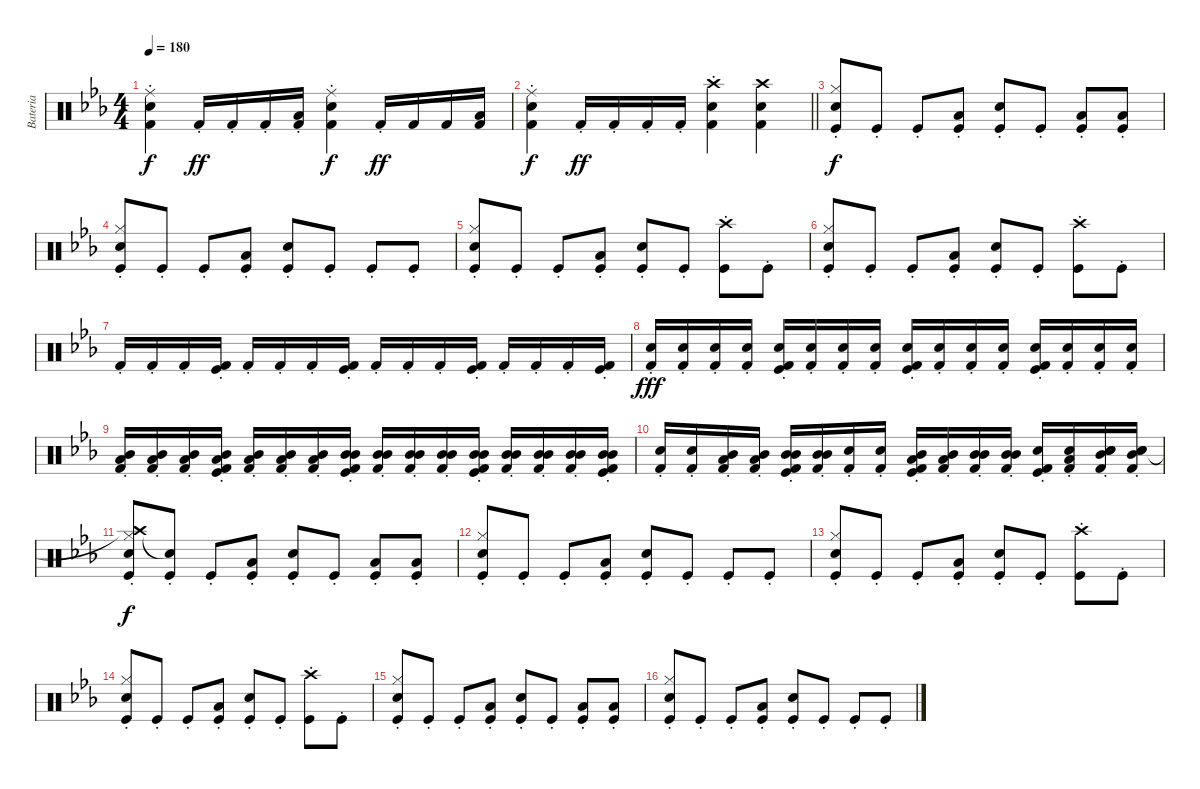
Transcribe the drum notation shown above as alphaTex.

\track ("Bateria" "Bateria") {instrument percussion}
\staff {score}
\articulation defaults
\ts (4 4)
\tempo 180
\clef neutral
\ks eb
("Ride (middle)"{st} "Snare (hit) 2"{st} "Kick (hit) 2"{st}).4{dy f} "Kick (hit) 2"{st}.16{dy ff} "Kick (hit) 2"{st}.16 "Kick (hit) 2"{st}.16 ("Low Tom (hit)" "Kick (hit) 2"{st}).16 ("Ride (middle)"{st} "Snare (hit) 2"{st} "Kick (hit) 2"{st}).4{dy f} "Kick (hit) 2"{st}.16{dy ff} "Kick (hit) 2".16 "Kick (hit) 2".16 ("Low Tom (hit)" "Kick (hit) 2").16 |
\barLineRight lightlight
("Ride (middle)"{st} "Snare (hit) 2"{st} "Kick (hit) 2"{st}).4{dy f} "Kick (hit) 2"{st}.16{dy ff} "Kick (hit) 2"{st}.16 "Kick (hit) 2"{st}.16 "Kick (hit) 2"{st}.16 ("Crash high (hit)" "Snare (hit) 2" "Kick (hit) 2"{st}).4 ("Crash high (hit)" "Snare (hit) 2" "Kick (hit) 2").4 |
("Hi-Hat (closed)"{st} "Snare (hit) 2"{st} "Kick (hit)"{st}).8{dy f} "Kick (hit)"{st}.8 "Kick (hit)"{st}.8 ("Low Tom (hit)"{st} "Kick (hit)"{st}).8 ("Snare (hit) 2"{st} "Kick (hit)"{st}).8 "Kick (hit)"{st}.8 ("Low Tom (hit)"{st} "Kick (hit)"{st}).8 ("Low Tom (hit)"{st} "Kick (hit)"{st}).8 |
("Hi-Hat (closed)"{st} "Snare (hit) 2"{st} "Kick (hit)"{st}).8 "Kick (hit)"{st}.8 "Kick (hit)"{st}.8 ("Low Tom (hit)"{st} "Kick (hit)"{st}).8 ("Snare (hit) 2"{st} "Kick (hit)"{st}).8 "Kick (hit)"{st}.8 "Kick (hit)"{st}.8 "Kick (hit)"{st}.8 |
("Hi-Hat (closed)"{st} "Snare (hit) 2"{st} "Kick (hit)"{st}).8 "Kick (hit)"{st}.8 "Kick (hit)"{st}.8 ("Low Tom (hit)"{st} "Kick (hit)"{st}).8 ("Snare (hit) 2"{st} "Kick (hit)"{st}).8 "Kick (hit)"{st}.8 ("Crash high (hit)"{st} "Kick (hit)"{st}).8 "Kick (hit)"{st}.8 |
("Hi-Hat (closed)"{st} "Snare (hit) 2"{st} "Kick (hit)"{st}).8 "Kick (hit)"{st}.8 "Kick (hit)"{st}.8 ("Low Tom (hit)"{st} "Kick (hit)"{st}).8 ("Snare (hit) 2"{st} "Kick (hit)"{st}).8 "Kick (hit)"{st}.8 ("Crash high (hit)"{st} "Kick (hit)"{st}).8 "Kick (hit)"{st}.8 |
"Kick (hit) 2"{st}.16 "Kick (hit) 2"{st}.16 "Kick (hit) 2"{st}.16 ("Kick (hit)"{st} "Kick (hit) 2"{st}).16 "Kick (hit) 2"{st}.16 "Kick (hit) 2"{st}.16 "Kick (hit) 2"{st}.16 ("Kick (hit)"{st} "Kick (hit) 2"{st}).16 "Kick (hit) 2"{st}.16 "Kick (hit) 2"{st}.16 "Kick (hit) 2"{st}.16 ("Kick (hit)"{st} "Kick (hit) 2"{st}).16 "Kick (hit) 2"{st}.16 "Kick (hit) 2"{st}.16 "Kick (hit) 2"{st}.16 ("Kick (hit)"{st} "Kick (hit) 2"{st}).16 |
("Snare (hit) 2" "Kick (hit) 2"{st}).16{dy fff} ("Snare (hit) 2" "Kick (hit) 2"{st}).16 ("Snare (hit) 2" "Kick (hit) 2"{st}).16 ("Snare (hit) 2" "Kick (hit) 2"{st}).16 ("Snare (hit) 2" "Kick (hit)"{st} "Kick (hit) 2"{st}).16 ("Snare (hit) 2" "Kick (hit) 2"{st}).16 ("Snare (hit) 2" "Kick (hit) 2"{st}).16 ("Snare (hit) 2" "Kick (hit) 2"{st}).16 ("Snare (hit) 2" "Kick (hit)"{st} "Kick (hit) 2"{st}).16 ("Snare (hit) 2" "Kick (hit) 2"{st}).16 ("Snare (hit) 2" "Kick (hit) 2"{st}).16 ("Snare (hit) 2" "Kick (hit) 2"{st}).16 ("Snare (hit) 2" "Kick (hit)"{st} "Kick (hit) 2"{st}).16 ("Snare (hit) 2" "Kick (hit) 2"{st}).16 ("Snare (hit) 2" "Kick (hit) 2"{st}).16 ("Snare (hit) 2" "Kick (hit) 2"{st}).16 |
("Low Tom (hit)" "Mid Tom (hit)" "Kick (hit) 2"{st}).16 ("Low Tom (hit)" "Mid Tom (hit)" "Kick (hit) 2"{st}).16 ("Low Tom (hit)" "Mid Tom (hit)" "Kick (hit) 2"{st}).16 ("Low Tom (hit)" "Mid Tom (hit)" "Kick (hit)"{st} "Kick (hit) 2"{st}).16 ("Low Tom (hit)" "Mid Tom (hit)" "Kick (hit) 2"{st}).16 ("Low Tom (hit)" "Mid Tom (hit)" "Kick (hit) 2"{st}).16 ("Low Tom (hit)" "Mid Tom (hit)" "Kick (hit) 2"{st}).16 ("Mid Tom (hit)" "Mid Tom (hit)" "Kick (hit)"{st} "Kick (hit) 2"{st}).16 ("Mid Tom (hit)" "Mid Tom (hit)" "Kick (hit) 2"{st}).16 ("Mid Tom (hit)" "Mid Tom (hit)" "Kick (hit) 2"{st}).16 ("Mid Tom (hit)" "Mid Tom (hit)" "Kick (hit) 2"{st}).16 ("Mid Tom (hit)" "Mid Tom (hit)" "Kick (hit)"{st} "Kick (hit) 2"{st}).16 ("Mid Tom (hit)" "Mid Tom (hit)" "Kick (hit) 2"{st}).16 ("Mid Tom (hit)" "Mid Tom (hit)" "Kick (hit) 2"{st}).16 ("Mid Tom (hit)" "Mid Tom (hit)" "Kick (hit) 2"{st}).16 ("Mid Tom (hit)" "Mid Tom (hit)" "Kick (hit)"{st} "Kick (hit) 2"{st}).16 |
("Snare (hit) 2" "Kick (hit) 2"{st}).16 ("Snare (hit) 2" "Kick (hit) 2"{st}).16 ("Low Tom (hit)" "Mid Tom (hit)" "Kick (hit) 2"{st}).16 ("Low Tom (hit)" "Mid Tom (hit)" "Kick (hit) 2"{st}).16 ("Mid Tom (hit)" "Mid Tom (hit)" "Kick (hit)"{st} "Kick (hit) 2"{st}).16 ("Mid Tom (hit)" "Mid Tom (hit)" "Kick (hit) 2"{st}).16 ("Snare (hit) 2" "Kick (hit) 2"{st}).16 ("Snare (hit) 2" "Kick (hit) 2"{st}).16 ("Mid Tom (hit)" "Low Tom (hit)" "Kick (hit)"{st} "Kick (hit) 2"{st}).16 ("Low Tom (hit)" "Mid Tom (hit)" "Kick (hit) 2"{st}).16 ("Mid Tom (hit)" "Mid Tom (hit)" "Kick (hit) 2"{st}).16 ("Mid Tom (hit)" "Mid Tom (hit)" "Kick (hit) 2"{st}).16 ("Snare (hit) 2" "Kick (hit)"{st} "Kick (hit) 2"{st}).16 ("Low Tom (hit)" "Snare (hit) 2" "Kick (hit) 2"{st}).16 ("Snare (hit) 2" "Mid Tom (hit)" "Snare (hit) 2" "Kick (hit) 2"{st}).16 ("Snare (hit) 2" "Mid Tom (hit)" "Snare (hit) 2" "Kick (hit) 2"{st}).16 |
("Crash high (hit)"{t} "Hi-Hat (closed)"{st} "Snare (hit) 2"{st} "Kick (hit)"{st}).8{dy f} ("Snare (hit)"{t} "Kick (hit)"{st}).8 "Kick (hit)"{st}.8 ("Low Tom (hit)"{st} "Kick (hit)"{st}).8 ("Snare (hit) 2"{st} "Kick (hit)"{st}).8 "Kick (hit)"{st}.8 ("Low Tom (hit)"{st} "Kick (hit)"{st}).8 ("Low Tom (hit)"{st} "Kick (hit)"{st}).8 |
("Hi-Hat (closed)"{st} "Snare (hit) 2"{st} "Kick (hit)"{st}).8 "Kick (hit)"{st}.8 "Kick (hit)"{st}.8 ("Low Tom (hit)"{st} "Kick (hit)"{st}).8 ("Snare (hit) 2"{st} "Kick (hit)"{st}).8 "Kick (hit)"{st}.8 "Kick (hit)"{st}.8 "Kick (hit)"{st}.8 |
("Hi-Hat (closed)"{st} "Snare (hit) 2"{st} "Kick (hit)"{st}).8 "Kick (hit)"{st}.8 "Kick (hit)"{st}.8 ("Low Tom (hit)"{st} "Kick (hit)"{st}).8 ("Snare (hit) 2"{st} "Kick (hit)"{st}).8 "Kick (hit)"{st}.8 ("Crash high (hit)"{st} "Kick (hit)"{st}).8 "Kick (hit)"{st}.8 |
("Hi-Hat (closed)"{st} "Snare (hit) 2"{st} "Kick (hit)"{st}).8 "Kick (hit)"{st}.8 "Kick (hit)"{st}.8 ("Low Tom (hit)"{st} "Kick (hit)"{st}).8 ("Snare (hit) 2"{st} "Kick (hit)"{st}).8 "Kick (hit)"{st}.8 ("Crash high (hit)"{st} "Kick (hit)"{st}).8 "Kick (hit)"{st}.8 |
("Hi-Hat (closed)"{st} "Snare (hit) 2"{st} "Kick (hit)"{st}).8 "Kick (hit)"{st}.8 "Kick (hit)"{st}.8 ("Low Tom (hit)"{st} "Kick (hit)"{st}).8 ("Snare (hit) 2"{st} "Kick (hit)"{st}).8 "Kick (hit)"{st}.8 ("Low Tom (hit)"{st} "Kick (hit)"{st}).8 ("Low Tom (hit)"{st} "Kick (hit)"{st}).8 |
("Hi-Hat (closed)"{st} "Snare (hit) 2"{st} "Kick (hit)"{st}).8 "Kick (hit)"{st}.8 "Kick (hit)"{st}.8 ("Low Tom (hit)"{st} "Kick (hit)"{st}).8 ("Snare (hit) 2"{st} "Kick (hit)"{st}).8 "Kick (hit)"{st}.8 "Kick (hit)"{st}.8 "Kick (hit)"{st}.8
